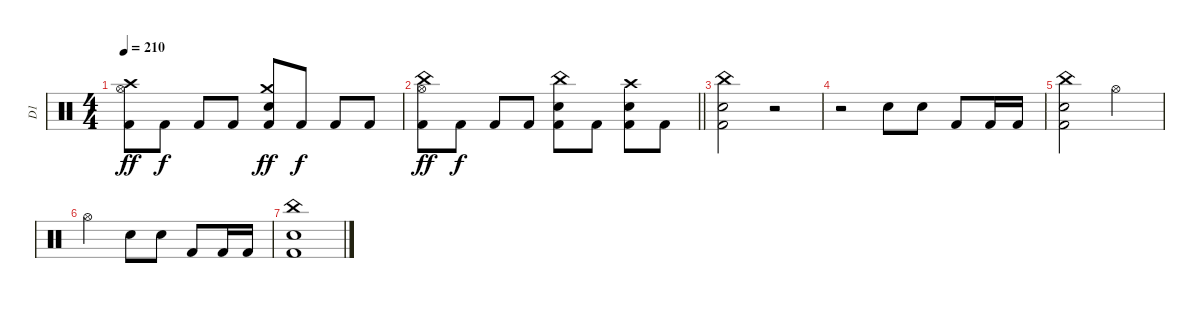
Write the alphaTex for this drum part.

\track ("D1" "D1") {instrument percussion}
\staff {score}
\articulation defaults
\ts (4 4)
\tempo 210
\clef neutral
\ks c
("Crash high (hit)" "Hi-Hat (open)" "Kick (hit) 2").8{dy ff} "Kick (hit) 2".8{dy f} "Kick (hit) 2".8 "Kick (hit) 2".8 ("Crash medium (hit)" "Snare (hit) 2" "Kick (hit) 2").8{dy ff} "Kick (hit) 2".8{dy f} "Kick (hit) 2".8 "Kick (hit) 2".8 |
\barLineRight lightlight
("China (hit)" "Hi-Hat (open)" "Kick (hit) 2").8{dy ff} "Kick (hit) 2".8{dy f} "Kick (hit) 2".8 "Kick (hit) 2".8 ("China (hit)" "Snare (hit) 2" "Kick (hit) 2").8 "Kick (hit) 2".8 ("Crash high (hit)" "Snare (hit) 2" "Kick (hit) 2").8 "Kick (hit) 2".8 |
("China (hit)" "Kick (hit) 2" "Snare (hit) 2").2 r.2 |
r.2 "Snare (hit) 2".8 "Snare (hit) 2".8 "Kick (hit) 2".8 "Kick (hit) 2".16 "Kick (hit) 2".16 |
("China (hit)" "Snare (hit) 2" "Kick (hit) 2").2 "Hi-Hat (open)".2 |
"Hi-Hat (open)".2 "Snare (hit) 2".8 "Snare (hit) 2".8 "Kick (hit) 2".8 "Kick (hit) 2".16 "Kick (hit) 2".16 |
("China (hit)" "Snare (hit) 2" "Kick (hit) 2").1
